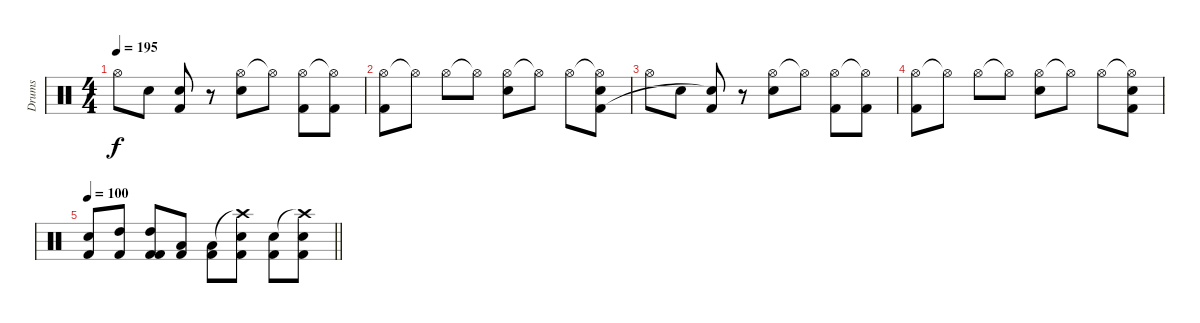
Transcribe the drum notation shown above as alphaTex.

\track ("Drums" "Drums") {instrument percussion}
\staff {score}
\articulation defaults
\ts (4 4)
\tempo 195
\clef neutral
\ks c "Hi-Hat (open)".8{dy f} "Snare (hit) 2".8
("Kick (hit) 2" "Snare (hit) 2"{t}).8 r.8 ("Hi-Hat (open)" "Snare (hit) 2").8 "Hi-Hat (open)"{t}.8 ("Hi-Hat (open)" "Kick (hit) 2").8 ("Hi-Hat (open)"{t} "Kick (hit) 2").8 |
("Hi-Hat (open)" "Kick (hit) 2").8 "Hi-Hat (open)"{t}.8 "Hi-Hat (open)".8 "Hi-Hat (open)"{t}.8 ("Hi-Hat (open)" "Snare (hit) 2").8 "Hi-Hat (open)"{t}.8 "Hi-Hat (open)".8 ("Hi-Hat (open)"{t} "Kick (hit) 2" "Snare (hit) 2").8 |
"Hi-Hat (open)".8 "Snare (hit) 2".8 ("Kick (hit) 2" "Snare (hit) 2"{t}).8 r.8 ("Hi-Hat (open)" "Snare (hit) 2").8 "Hi-Hat (open)"{t}.8 ("Hi-Hat (open)" "Kick (hit) 2").8 ("Hi-Hat (open)"{t} "Kick (hit) 2").8 |
("Hi-Hat (open)" "Kick (hit) 2").8 "Hi-Hat (open)"{t}.8 "Hi-Hat (open)".8 "Hi-Hat (open)"{t}.8 ("Hi-Hat (open)" "Snare (hit) 2").8 "Hi-Hat (open)"{t}.8 "Hi-Hat (open)".8 ("Hi-Hat (open)"{t} "Kick (hit) 2" "Snare (hit) 2").8 |
\tempo 100
\barLineRight lightlight
("Snare (hit) 2" "Kick (hit) 2").8 ("High Tom (hit)" "Kick (hit) 2").8 ("Kick (hit) 2" "High Tom (hit)" "Kick (hit) 2").8 ("Low Tom (hit)" "Kick (hit) 2").8 ("Low Tom (hit)" "Kick (hit) 2").8 ("Crash high (hit)"{t} "Snare (hit) 2" "Kick (hit) 2").8 ("Snare (hit) 2" "Kick (hit) 2").8 ("Crash high (hit)"{t} "Snare (hit) 2" "Kick (hit) 2").8
